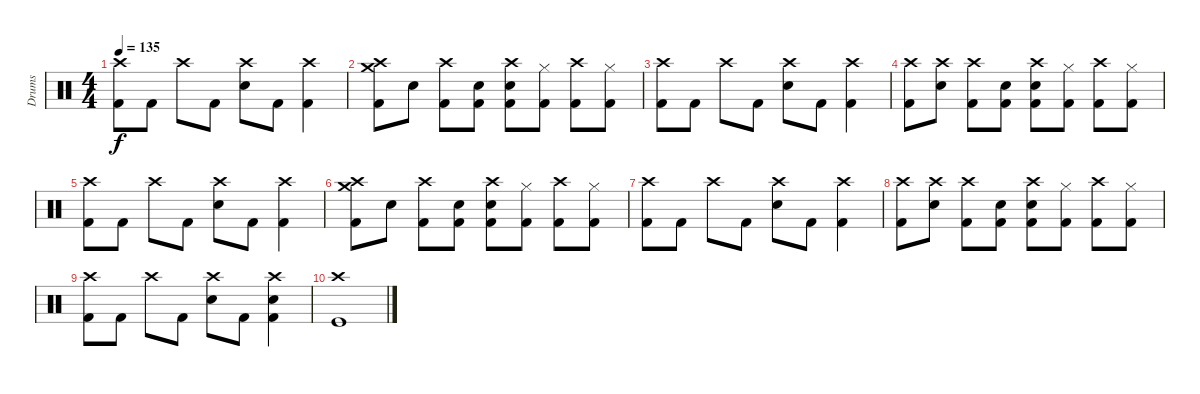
\track ("Drums" "Drums") {instrument percussion}
\staff {score}
\articulation defaults
\ts (4 4)
\tempo 135
\clef neutral
\ks c
("Crash high (hit)" "Kick (hit) 2"{x}).8{dy f} "Kick (hit) 2"{x}.8 "Crash high (hit)".8 "Kick (hit) 2".8 ("Crash high (hit)" "Electric Snare (hit)").8 "Kick (hit) 2".8 ("Crash high (hit)" "Kick (hit) 2"{x}).4 |
("Crash high (hit)" "Crash medium (hit)" "Kick (hit) 2").8 "Snare (hit)"{x}.8 ("Crash high (hit)" "Kick (hit) 2"{x}).8 ("Electric Snare (hit)"{x} "Kick (hit) 2").8 ("Crash high (hit)" "Electric Snare (hit)" "Kick (hit) 2"{x}).8 ("Hi-Hat (closed)"{x} "Kick (hit) 2"{x}).8 ("Crash high (hit)" "Kick (hit) 2").8 ("Hi-Hat (closed)"{x} "Kick (hit) 2").8 |
("Crash high (hit)" "Kick (hit) 2"{x}).8 "Kick (hit) 2"{x}.8 "Crash high (hit)".8 "Kick (hit) 2".8 ("Crash high (hit)" "Electric Snare (hit)").8 "Kick (hit) 2".8 ("Crash high (hit)" "Kick (hit) 2"{x}).4 |
("Crash high (hit)" "Kick (hit) 2").8 ("Crash high (hit)"{x} "Snare (hit)"{x}).8 ("Crash high (hit)" "Kick (hit) 2"{x}).8 ("Electric Snare (hit)"{x} "Kick (hit) 2").8 ("Crash high (hit)" "Electric Snare (hit)" "Kick (hit) 2"{x}).8 ("Hi-Hat (closed)"{x} "Kick (hit) 2"{x}).8 ("Crash high (hit)" "Kick (hit) 2").8 ("Hi-Hat (closed)"{x} "Kick (hit) 2").8 |
("Crash high (hit)" "Kick (hit) 2"{x}).8 "Kick (hit) 2"{x}.8 "Crash high (hit)".8 "Kick (hit) 2".8 ("Crash high (hit)" "Electric Snare (hit)").8 "Kick (hit) 2".8 ("Crash high (hit)" "Kick (hit) 2"{x}).4 |
("Crash high (hit)" "Crash medium (hit)" "Kick (hit) 2").8 "Snare (hit)"{x}.8 ("Crash high (hit)" "Kick (hit) 2"{x}).8 ("Electric Snare (hit)"{x} "Kick (hit) 2").8 ("Crash high (hit)" "Electric Snare (hit)" "Kick (hit) 2"{x}).8 ("Hi-Hat (closed)"{x} "Kick (hit) 2"{x}).8 ("Crash high (hit)" "Kick (hit) 2").8 ("Hi-Hat (closed)"{x} "Kick (hit) 2").8 |
("Crash high (hit)" "Kick (hit) 2"{x}).8 "Kick (hit) 2"{x}.8 "Crash high (hit)".8 "Kick (hit) 2".8 ("Crash high (hit)" "Electric Snare (hit)").8 "Kick (hit) 2".8 ("Crash high (hit)" "Kick (hit) 2"{x}).4 |
("Crash high (hit)" "Kick (hit) 2").8 ("Crash high (hit)"{x} "Snare (hit)"{x}).8 ("Crash high (hit)" "Kick (hit) 2"{x}).8 ("Electric Snare (hit)"{x} "Kick (hit) 2").8 ("Crash high (hit)" "Electric Snare (hit)" "Kick (hit) 2"{x}).8 ("Hi-Hat (closed)"{x} "Kick (hit) 2"{x}).8 ("Crash high (hit)" "Kick (hit) 2").8 ("Hi-Hat (closed)"{x} "Kick (hit) 2").8 |
("Crash high (hit)" "Kick (hit) 2"{x}).8 "Kick (hit) 2"{x}.8 "Crash high (hit)".8 "Kick (hit) 2".8 ("Crash high (hit)" "Electric Snare (hit)").8 "Kick (hit) 2".8 ("Crash high (hit)" "Electric Snare (hit)" "Kick (hit) 2"{x}).4 |
("Crash high (hit)" "Kick (hit)").1
